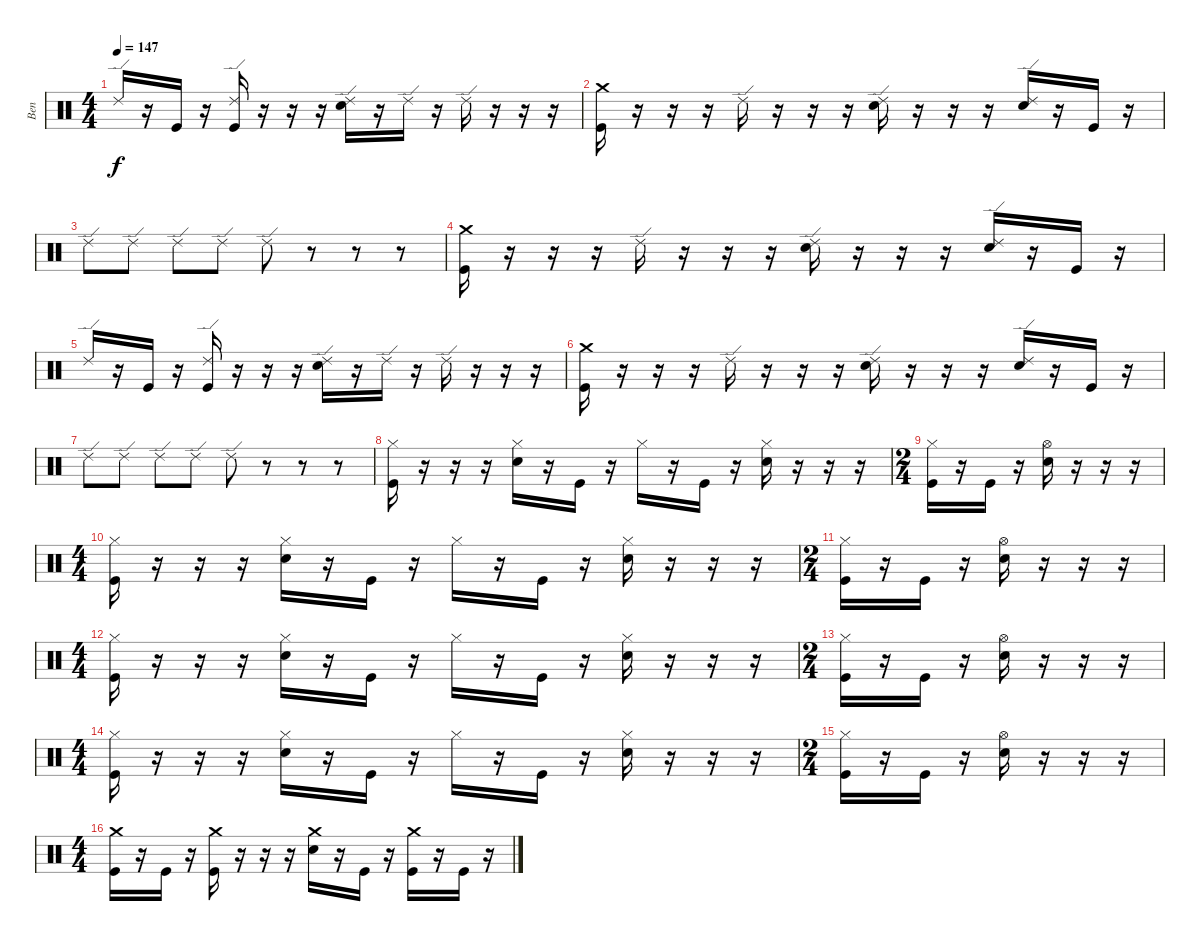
\track ("Ben" "Ben") {instrument percussion}
\staff {score}
\articulation defaults
\ts (4 4)
\tempo 147
\clef neutral
\ks c "Ride (edge) 2".16{dy f}
r.16 "Kick (hit)".16 r.16 ("Ride (edge) 2" "Kick (hit)").16 r.16 r.16 r.16 ("Ride (edge) 2" "Electric Snare (hit)").16 r.16 "Ride (edge) 2".16 r.16 "Ride (edge) 2".16 r.16 r.16 r.16 |
("Crash medium (hit)" "Kick (hit)").16 r.16 r.16 r.16 "Ride (edge) 2".16 r.16 r.16 r.16 ("Ride (edge) 2" "Electric Snare (hit)").16 r.16 r.16 r.16 ("Ride (edge) 2" "Electric Snare (hit)").16 r.16 "Kick (hit)".16 r.16 |
"Ride (edge) 2".8 "Ride (edge) 2".8 "Ride (edge) 2".8 "Ride (edge) 2".8 "Ride (edge) 2".8 r.8 r.8 r.8 |
("Crash medium (hit)" "Kick (hit)").16 r.16 r.16 r.16 "Ride (edge) 2".16 r.16 r.16 r.16 ("Ride (edge) 2" "Electric Snare (hit)").16 r.16 r.16 r.16 ("Ride (edge) 2" "Electric Snare (hit)").16 r.16 "Kick (hit)".16 r.16 |
"Ride (edge) 2".16 r.16 "Kick (hit)".16 r.16 ("Ride (edge) 2" "Kick (hit)").16 r.16 r.16 r.16 ("Ride (edge) 2" "Electric Snare (hit)").16 r.16 "Ride (edge) 2".16 r.16 "Ride (edge) 2".16 r.16 r.16 r.16 |
("Crash medium (hit)" "Kick (hit)").16 r.16 r.16 r.16 "Ride (edge) 2".16 r.16 r.16 r.16 ("Ride (edge) 2" "Electric Snare (hit)").16 r.16 r.16 r.16 ("Ride (edge) 2" "Electric Snare (hit)").16 r.16 "Kick (hit)".16 r.16 |
"Ride (edge) 2".8 "Ride (edge) 2".8 "Ride (edge) 2".8 "Ride (edge) 2".8 "Ride (edge) 2".8 r.8 r.8 r.8 |
("Hi-Hat (closed)" "Kick (hit)").16 r.16 r.16 r.16 ("Hi-Hat (closed)" "Electric Snare (hit)").16 r.16 "Kick (hit)".16 r.16 "Hi-Hat (closed)".16 r.16 "Kick (hit)".16 r.16 ("Hi-Hat (closed)" "Electric Snare (hit)").16 r.16 r.16 r.16 |
\ts (2 4)
("Hi-Hat (closed)" "Kick (hit)").16 r.16 "Kick (hit)".16 r.16 ("Hi-Hat (open)" "Electric Snare (hit)").16 r.16 r.16 r.16 |
\ts (4 4)
("Hi-Hat (closed)" "Kick (hit)").16 r.16 r.16 r.16 ("Hi-Hat (closed)" "Electric Snare (hit)").16 r.16 "Kick (hit)".16 r.16 "Hi-Hat (closed)".16 r.16 "Kick (hit)".16 r.16 ("Hi-Hat (closed)" "Electric Snare (hit)").16 r.16 r.16 r.16 |
\ts (2 4)
("Hi-Hat (closed)" "Kick (hit)").16 r.16 "Kick (hit)".16 r.16 ("Hi-Hat (open)" "Electric Snare (hit)").16 r.16 r.16 r.16 |
\ts (4 4)
("Hi-Hat (closed)" "Kick (hit)").16 r.16 r.16 r.16 ("Hi-Hat (closed)" "Electric Snare (hit)").16 r.16 "Kick (hit)".16 r.16 "Hi-Hat (closed)".16 r.16 "Kick (hit)".16 r.16 ("Hi-Hat (closed)" "Electric Snare (hit)").16 r.16 r.16 r.16 |
\ts (2 4)
("Hi-Hat (closed)" "Kick (hit)").16 r.16 "Kick (hit)".16 r.16 ("Hi-Hat (open)" "Electric Snare (hit)").16 r.16 r.16 r.16 |
\ts (4 4)
("Hi-Hat (closed)" "Kick (hit)").16 r.16 r.16 r.16 ("Hi-Hat (closed)" "Electric Snare (hit)").16 r.16 "Kick (hit)".16 r.16 "Hi-Hat (closed)".16 r.16 "Kick (hit)".16 r.16 ("Hi-Hat (closed)" "Electric Snare (hit)").16 r.16 r.16 r.16 |
\ts (2 4)
("Hi-Hat (closed)" "Kick (hit)").16 r.16 "Kick (hit)".16 r.16 ("Hi-Hat (open)" "Electric Snare (hit)").16 r.16 r.16 r.16 |
\ts (4 4)
("Crash medium (hit)" "Kick (hit)").16 r.16 "Kick (hit)".16 r.16 ("Crash medium (hit)" "Kick (hit)").16 r.16 r.16 r.16 ("Crash medium (hit)" "Electric Snare (hit)").16 r.16 "Kick (hit)".16 r.16 ("Crash medium (hit)" "Kick (hit)").16 r.16 "Kick (hit)".16 r.16
